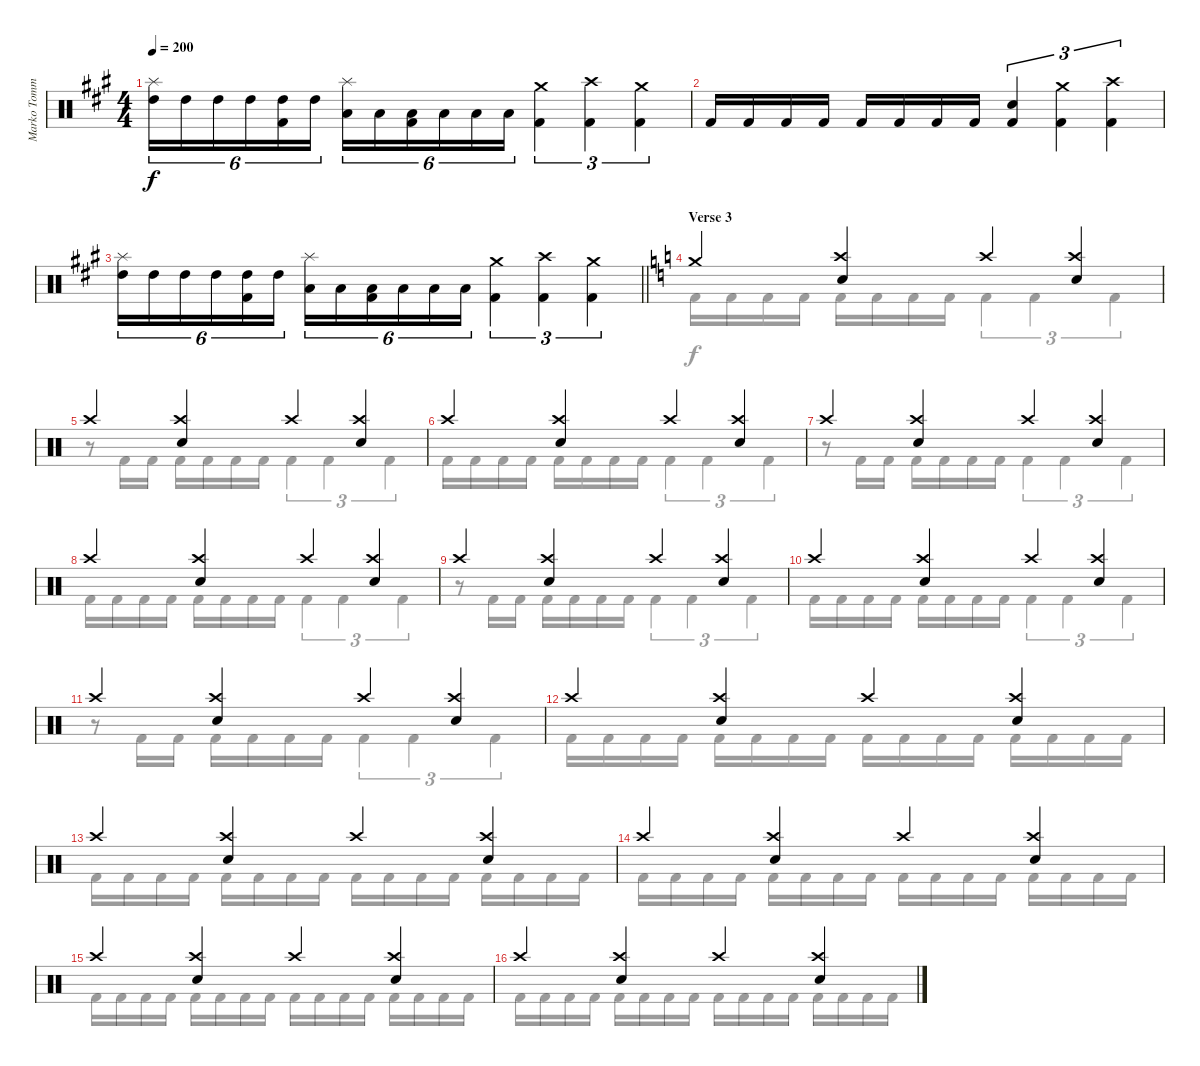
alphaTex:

\track ("Marko Tommila (drums)" "Marko Tomm") {instrument percussion}
\staff {score}
\articulation defaults
\voice
\ts (4 4)
\tempo 200
\clef neutral
\ks f#minor
("Splash (hit)" "High Tom (hit)").16{tu (6 4) dy f} "High Tom (hit)".16{tu (6 4)} "High Tom (hit)".16{tu (6 4)} "High Tom (hit)".16{tu (6 4)} ("High Tom (hit)" "Kick (hit) 2").16{tu (6 4)} "High Tom (hit)".16{tu (6 4)} ("Splash (hit)" "Low Tom (hit)").16{tu (6 4)} "Low Tom (hit)".16{tu (6 4)} ("Low Tom (hit)" "Kick (hit) 2").16{tu (6 4)} "Low Tom (hit)".16{tu (6 4)} "Low Tom (hit)".16{tu (6 4)} "Low Tom (hit)".16{tu (6 4)} ("Crash medium (hit)" "Kick (hit) 2").4{tu (3 2)} ("Crash high (hit)" "Kick (hit) 2").4{tu (3 2)} ("Crash medium (hit)" "Kick (hit) 2").4{tu (3 2)} |
"Kick (hit) 2".16 "Kick (hit) 2".16 "Kick (hit) 2".16 "Kick (hit) 2".16 "Kick (hit) 2".16 "Kick (hit) 2".16 "Kick (hit) 2".16 "Kick (hit) 2".16 ("Electric Snare (hit)" "Kick (hit) 2").4{tu (3 2)} ("Crash medium (hit)" "Kick (hit) 2").4{tu (3 2)} ("Crash high (hit)" "Kick (hit) 2").4{tu (3 2)} |
\barLineRight lightlight
("Splash (hit)" "High Tom (hit)").16{tu (6 4)} "High Tom (hit)".16{tu (6 4)} "High Tom (hit)".16{tu (6 4)} "High Tom (hit)".16{tu (6 4)} ("High Tom (hit)" "Kick (hit) 2").16{tu (6 4)} "High Tom (hit)".16{tu (6 4)} ("Splash (hit)" "Low Tom (hit)").16{tu (6 4)} "Low Tom (hit)".16{tu (6 4)} ("Low Tom (hit)" "Kick (hit) 2").16{tu (6 4)} "Low Tom (hit)".16{tu (6 4)} "Low Tom (hit)".16{tu (6 4)} "Low Tom (hit)".16{tu (6 4)} ("Crash medium (hit)" "Kick (hit) 2").4{tu (3 2)} ("Crash high (hit)" "Kick (hit) 2").4{tu (3 2)} ("Crash medium (hit)" "Kick (hit) 2").4{tu (3 2)} |
\section ("" "Verse 3")
\ks c "Crash medium (hit)".4
("Crash high (hit)" "Electric Snare (hit)").4 "Crash high (hit)".4 ("Crash high (hit)" "Electric Snare (hit)").4 |
"Crash high (hit)".4 ("Crash high (hit)" "Electric Snare (hit)").4 "Crash high (hit)".4 ("Crash high (hit)" "Electric Snare (hit)").4 |
"Crash high (hit)".4 ("Crash high (hit)" "Electric Snare (hit)").4 "Crash high (hit)".4 ("Crash high (hit)" "Electric Snare (hit)").4 |
"Crash high (hit)".4 ("Crash high (hit)" "Electric Snare (hit)").4 "Crash high (hit)".4 ("Crash high (hit)" "Electric Snare (hit)").4 |
"Crash high (hit)".4 ("Crash high (hit)" "Electric Snare (hit)").4 "Crash high (hit)".4 ("Crash high (hit)" "Electric Snare (hit)").4 |
"Crash high (hit)".4 ("Crash high (hit)" "Electric Snare (hit)").4 "Crash high (hit)".4 ("Crash high (hit)" "Electric Snare (hit)").4 |
"Crash high (hit)".4 ("Crash high (hit)" "Electric Snare (hit)").4 "Crash high (hit)".4 ("Crash high (hit)" "Electric Snare (hit)").4 |
"Crash high (hit)".4 ("Crash high (hit)" "Electric Snare (hit)").4 "Crash high (hit)".4 ("Crash high (hit)" "Electric Snare (hit)").4 |
"Crash high (hit)".4 ("Crash high (hit)" "Electric Snare (hit)").4 "Crash high (hit)".4 ("Crash high (hit)" "Electric Snare (hit)").4 |
"Crash high (hit)".4 ("Crash high (hit)" "Electric Snare (hit)").4 "Crash high (hit)".4 ("Crash high (hit)" "Electric Snare (hit)").4 |
"Crash high (hit)".4 ("Crash high (hit)" "Electric Snare (hit)").4 "Crash high (hit)".4 ("Crash high (hit)" "Electric Snare (hit)").4 |
"Crash high (hit)".4 ("Crash high (hit)" "Electric Snare (hit)").4 "Crash high (hit)".4 ("Crash high (hit)" "Electric Snare (hit)").4 |
"Crash high (hit)".4 ("Crash high (hit)" "Electric Snare (hit)").4 "Crash high (hit)".4 ("Crash high (hit)" "Electric Snare (hit)").4
\voice
\clef neutral
\ottava regular
\simile none
\ks f#minor
|
|
\barLineRight lightlight
|
\ks c "Kick (hit) 2".16 "Kick (hit) 2".16 "Kick (hit) 2".16 "Kick (hit) 2".16 "Kick (hit) 2".16 "Kick (hit) 2".16 "Kick (hit) 2".16 "Kick (hit) 2".16 "Kick (hit) 2".4{tu (3 2)} "Kick (hit) 2".4{tu (3 2)} "Kick (hit) 2".4{tu (3 2)}
|
r.8 "Kick (hit) 2".16 "Kick (hit) 2".16 "Kick (hit) 2".16 "Kick (hit) 2".16 "Kick (hit) 2".16 "Kick (hit) 2".16 "Kick (hit) 2".4{tu (3 2)} "Kick (hit) 2".4{tu (3 2)} "Kick (hit) 2".4{tu (3 2)} |
"Kick (hit) 2".16 "Kick (hit) 2".16 "Kick (hit) 2".16 "Kick (hit) 2".16 "Kick (hit) 2".16 "Kick (hit) 2".16 "Kick (hit) 2".16 "Kick (hit) 2".16 "Kick (hit) 2".4{tu (3 2)} "Kick (hit) 2".4{tu (3 2)} "Kick (hit) 2".4{tu (3 2)} |
r.8 "Kick (hit) 2".16 "Kick (hit) 2".16 "Kick (hit) 2".16 "Kick (hit) 2".16 "Kick (hit) 2".16 "Kick (hit) 2".16 "Kick (hit) 2".4{tu (3 2)} "Kick (hit) 2".4{tu (3 2)} "Kick (hit) 2".4{tu (3 2)} |
"Kick (hit) 2".16 "Kick (hit) 2".16 "Kick (hit) 2".16 "Kick (hit) 2".16 "Kick (hit) 2".16 "Kick (hit) 2".16 "Kick (hit) 2".16 "Kick (hit) 2".16 "Kick (hit) 2".4{tu (3 2)} "Kick (hit) 2".4{tu (3 2)} "Kick (hit) 2".4{tu (3 2)} |
r.8 "Kick (hit) 2".16 "Kick (hit) 2".16 "Kick (hit) 2".16 "Kick (hit) 2".16 "Kick (hit) 2".16 "Kick (hit) 2".16 "Kick (hit) 2".4{tu (3 2)} "Kick (hit) 2".4{tu (3 2)} "Kick (hit) 2".4{tu (3 2)} |
"Kick (hit) 2".16 "Kick (hit) 2".16 "Kick (hit) 2".16 "Kick (hit) 2".16 "Kick (hit) 2".16 "Kick (hit) 2".16 "Kick (hit) 2".16 "Kick (hit) 2".16 "Kick (hit) 2".4{tu (3 2)} "Kick (hit) 2".4{tu (3 2)} "Kick (hit) 2".4{tu (3 2)} |
r.8 "Kick (hit) 2".16 "Kick (hit) 2".16 "Kick (hit) 2".16 "Kick (hit) 2".16 "Kick (hit) 2".16 "Kick (hit) 2".16 "Kick (hit) 2".4{tu (3 2)} "Kick (hit) 2".4{tu (3 2)} "Kick (hit) 2".4{tu (3 2)} |
"Kick (hit) 2".16 "Kick (hit) 2".16 "Kick (hit) 2".16 "Kick (hit) 2".16 "Kick (hit) 2".16 "Kick (hit) 2".16 "Kick (hit) 2".16 "Kick (hit) 2".16 "Kick (hit) 2".16 "Kick (hit) 2".16 "Kick (hit) 2".16 "Kick (hit) 2".16 "Kick (hit) 2".16 "Kick (hit) 2".16 "Kick (hit) 2".16 "Kick (hit) 2".16 |
"Kick (hit) 2".16 "Kick (hit) 2".16 "Kick (hit) 2".16 "Kick (hit) 2".16 "Kick (hit) 2".16 "Kick (hit) 2".16 "Kick (hit) 2".16 "Kick (hit) 2".16 "Kick (hit) 2".16 "Kick (hit) 2".16 "Kick (hit) 2".16 "Kick (hit) 2".16 "Kick (hit) 2".16 "Kick (hit) 2".16 "Kick (hit) 2".16 "Kick (hit) 2".16 |
"Kick (hit) 2".16 "Kick (hit) 2".16 "Kick (hit) 2".16 "Kick (hit) 2".16 "Kick (hit) 2".16 "Kick (hit) 2".16 "Kick (hit) 2".16 "Kick (hit) 2".16 "Kick (hit) 2".16 "Kick (hit) 2".16 "Kick (hit) 2".16 "Kick (hit) 2".16 "Kick (hit) 2".16 "Kick (hit) 2".16 "Kick (hit) 2".16 "Kick (hit) 2".16 |
"Kick (hit) 2".16 "Kick (hit) 2".16 "Kick (hit) 2".16 "Kick (hit) 2".16 "Kick (hit) 2".16 "Kick (hit) 2".16 "Kick (hit) 2".16 "Kick (hit) 2".16 "Kick (hit) 2".16 "Kick (hit) 2".16 "Kick (hit) 2".16 "Kick (hit) 2".16 "Kick (hit) 2".16 "Kick (hit) 2".16 "Kick (hit) 2".16 "Kick (hit) 2".16 |
"Kick (hit) 2".16 "Kick (hit) 2".16 "Kick (hit) 2".16 "Kick (hit) 2".16 "Kick (hit) 2".16 "Kick (hit) 2".16 "Kick (hit) 2".16 "Kick (hit) 2".16 "Kick (hit) 2".16 "Kick (hit) 2".16 "Kick (hit) 2".16 "Kick (hit) 2".16 "Kick (hit) 2".16 "Kick (hit) 2".16 "Kick (hit) 2".16 "Kick (hit) 2".16
